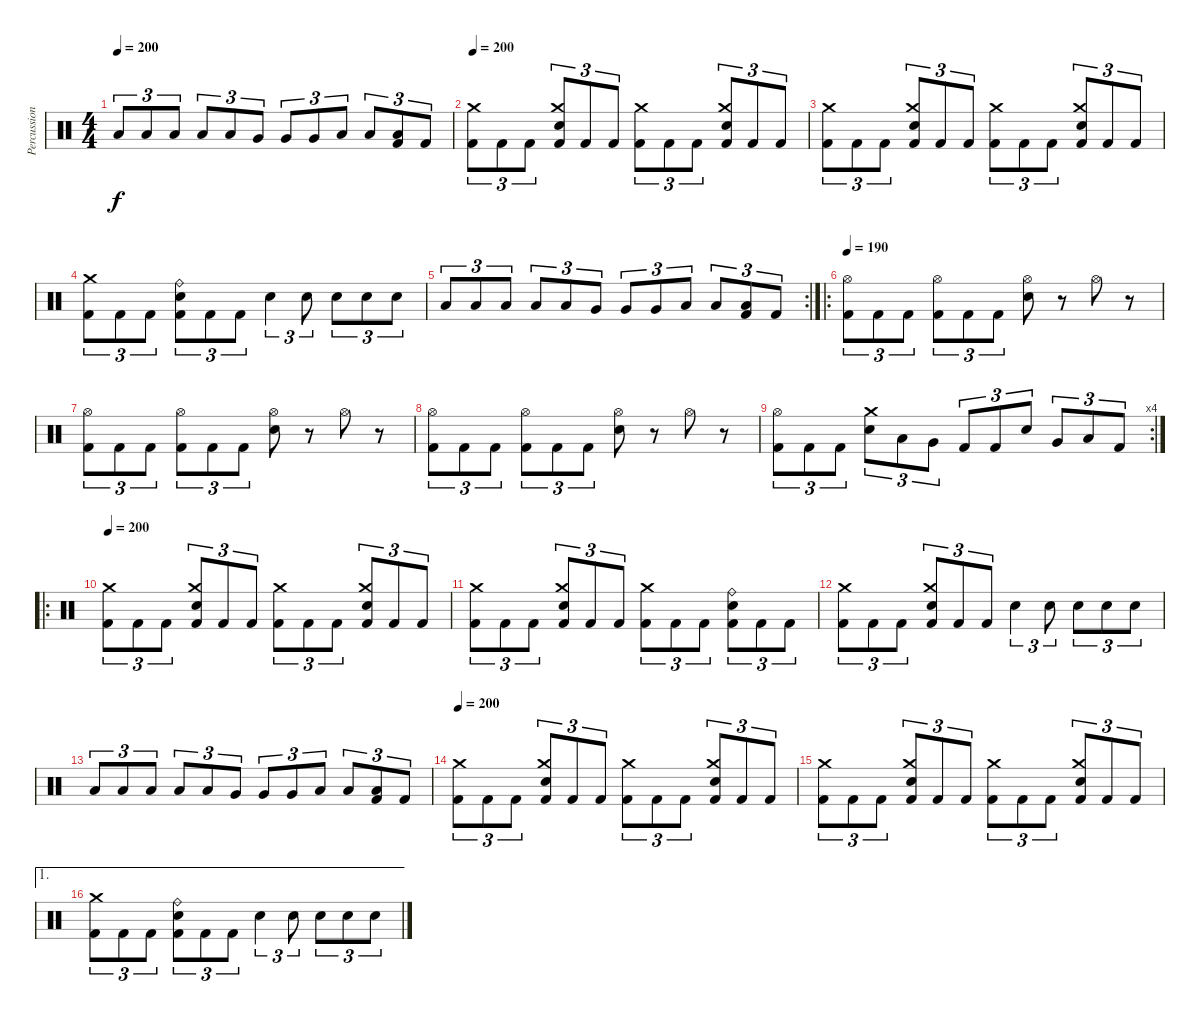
\track ("Percussion" "Percussion") {instrument percussion}
\staff {score}
\articulation defaults
\ts (4 4)
\tempo 200
\clef neutral
\ks c "Low Tom (hit)".8{tu (3 2) dy f} "Low Tom (hit)".8{tu (3 2)} "Low Tom (hit)".8{tu (3 2)} "Low Tom (hit)".8{tu (3 2)} "Low Tom (hit)".8{tu (3 2)} "Very Low Tom (hit)".8{tu (3 2)} "Very Low Tom (hit)".8{tu (3 2)} "Very Low Tom (hit)".8{tu (3 2)} "Low Floor Tom (hit)".8{tu (3 2)} "Low Floor Tom (hit)".8{tu (3 2)}
("Low Floor Tom (hit)" "Kick (hit) 2").8{tu (3 2)} "Kick (hit) 2".8{tu (3 2)} |
\tempo 200
("Crash medium (hit)" "Kick (hit) 2").8{tu (3 2)} "Kick (hit) 2".8{tu (3 2)} "Kick (hit) 2".8{tu (3 2)} ("Crash medium (hit)" "Electric Snare (hit)" "Kick (hit) 2").8{tu (3 2)} "Kick (hit) 2".8{tu (3 2)} "Kick (hit) 2".8{tu (3 2)} ("Crash medium (hit)" "Kick (hit) 2").8{tu (3 2)} "Kick (hit) 2".8{tu (3 2)} "Kick (hit) 2".8{tu (3 2)} ("Crash medium (hit)" "Electric Snare (hit)" "Kick (hit) 2").8{tu (3 2)} "Kick (hit) 2".8{tu (3 2)} "Kick (hit) 2".8{tu (3 2)} |
("Crash medium (hit)" "Kick (hit) 2").8{tu (3 2)} "Kick (hit) 2".8{tu (3 2)} "Kick (hit) 2".8{tu (3 2)} ("Crash medium (hit)" "Electric Snare (hit)" "Kick (hit) 2").8{tu (3 2)} "Kick (hit) 2".8{tu (3 2)} "Kick (hit) 2".8{tu (3 2)} ("Crash medium (hit)" "Kick (hit) 2").8{tu (3 2)} "Kick (hit) 2".8{tu (3 2)} "Kick (hit) 2".8{tu (3 2)} ("Crash medium (hit)" "Electric Snare (hit)" "Kick (hit) 2").8{tu (3 2)} "Kick (hit) 2".8{tu (3 2)} "Kick (hit) 2".8{tu (3 2)} |
("Crash medium (hit)" "Kick (hit) 2").8{tu (3 2)} "Kick (hit) 2".8{tu (3 2)} "Kick (hit) 2".8{tu (3 2)} ("Ride (bell)" "Electric Snare (hit)" "Kick (hit) 2").8{tu (3 2)} "Kick (hit) 2".8{tu (3 2)} "Kick (hit) 2".8{tu (3 2)} "Electric Snare (hit)".4{tu (3 2)} "Electric Snare (hit)".8{tu (3 2)} "Electric Snare (hit)".8{tu (3 2)} "Electric Snare (hit)".8{tu (3 2)} "Electric Snare (hit)".8{tu (3 2)} |
\rc 2 "Low Tom (hit)".8{tu (3 2)} "Low Tom (hit)".8{tu (3 2)} "Low Tom (hit)".8{tu (3 2)} "Low Tom (hit)".8{tu (3 2)} "Low Tom (hit)".8{tu (3 2)} "Very Low Tom (hit)".8{tu (3 2)} "Very Low Tom (hit)".8{tu (3 2)} "Very Low Tom (hit)".8{tu (3 2)} "Low Floor Tom (hit)".8{tu (3 2)} "Low Floor Tom (hit)".8{tu (3 2)}
("Low Floor Tom (hit)" "Kick (hit) 2").8{tu (3 2)} "Kick (hit) 2".8{tu (3 2)} |
\ro
\tempo 190
("Hi-Hat (open)" "Kick (hit) 2").8{tu (3 2)} "Kick (hit) 2".8{tu (3 2)} "Kick (hit) 2".8{tu (3 2)} ("Hi-Hat (open)" "Kick (hit) 2").8{tu (3 2)} "Kick (hit) 2".8{tu (3 2)} "Kick (hit) 2".8{tu (3 2)} ("Hi-Hat (open)" "Electric Snare (hit)").8 r.8 "Hi-Hat (open)".8 r.8 |
("Hi-Hat (open)" "Kick (hit) 2").8{tu (3 2)} "Kick (hit) 2".8{tu (3 2)} "Kick (hit) 2".8{tu (3 2)} ("Hi-Hat (open)" "Kick (hit) 2").8{tu (3 2)} "Kick (hit) 2".8{tu (3 2)} "Kick (hit) 2".8{tu (3 2)} ("Hi-Hat (open)" "Electric Snare (hit)").8 r.8 "Hi-Hat (open)".8 r.8 |
("Hi-Hat (open)" "Kick (hit) 2").8{tu (3 2)} "Kick (hit) 2".8{tu (3 2)} "Kick (hit) 2".8{tu (3 2)} ("Hi-Hat (open)" "Kick (hit) 2").8{tu (3 2)} "Kick (hit) 2".8{tu (3 2)} "Kick (hit) 2".8{tu (3 2)} ("Hi-Hat (open)" "Electric Snare (hit)").8 r.8 "Hi-Hat (open)".8 r.8 |
\rc 4
("Hi-Hat (open)" "Kick (hit) 2").8{tu (3 2)} "Kick (hit) 2".8{tu (3 2)} "Kick (hit) 2".8{tu (3 2)} ("Crash medium (hit)" "Electric Snare (hit)").8{tu (3 2)} "Low Tom (hit)".8{tu (3 2)} "Very Low Tom (hit)".8{tu (3 2)} "Kick (hit) 2".8{tu (3 2)} "Kick (hit) 2".8{tu (3 2)} "Electric Snare (hit)".8{tu (3 2)} "Very Low Tom (hit)".8{tu (3 2)} "Low Floor Tom (hit)".8{tu (3 2)} "Kick (hit) 2".8{tu (3 2)} |
\ro
\tempo 200
("Crash medium (hit)" "Kick (hit) 2").8{tu (3 2)} "Kick (hit) 2".8{tu (3 2)} "Kick (hit) 2".8{tu (3 2)} ("Crash medium (hit)" "Electric Snare (hit)" "Kick (hit) 2").8{tu (3 2)} "Kick (hit) 2".8{tu (3 2)} "Kick (hit) 2".8{tu (3 2)} ("Crash medium (hit)" "Kick (hit) 2").8{tu (3 2)} "Kick (hit) 2".8{tu (3 2)} "Kick (hit) 2".8{tu (3 2)} ("Crash medium (hit)" "Electric Snare (hit)" "Kick (hit) 2").8{tu (3 2)} "Kick (hit) 2".8{tu (3 2)} "Kick (hit) 2".8{tu (3 2)} |
("Crash medium (hit)" "Kick (hit) 2").8{tu (3 2)} "Kick (hit) 2".8{tu (3 2)} "Kick (hit) 2".8{tu (3 2)} ("Crash medium (hit)" "Electric Snare (hit)" "Kick (hit) 2").8{tu (3 2)} "Kick (hit) 2".8{tu (3 2)} "Kick (hit) 2".8{tu (3 2)} ("Crash medium (hit)" "Kick (hit) 2").8{tu (3 2)} "Kick (hit) 2".8{tu (3 2)} "Kick (hit) 2".8{tu (3 2)} ("Ride (bell)" "Electric Snare (hit)" "Kick (hit) 2").8{tu (3 2)} "Kick (hit) 2".8{tu (3 2)} "Kick (hit) 2".8{tu (3 2)} |
("Crash medium (hit)" "Kick (hit) 2").8{tu (3 2)} "Kick (hit) 2".8{tu (3 2)} "Kick (hit) 2".8{tu (3 2)} ("Crash medium (hit)" "Electric Snare (hit)" "Kick (hit) 2").8{tu (3 2)} "Kick (hit) 2".8{tu (3 2)} "Kick (hit) 2".8{tu (3 2)} "Electric Snare (hit)".4{tu (3 2)} "Electric Snare (hit)".8{tu (3 2)} "Electric Snare (hit)".8{tu (3 2)} "Electric Snare (hit)".8{tu (3 2)} "Electric Snare (hit)".8{tu (3 2)} |
"Low Tom (hit)".8{tu (3 2)} "Low Tom (hit)".8{tu (3 2)} "Low Tom (hit)".8{tu (3 2)} "Low Tom (hit)".8{tu (3 2)} "Low Tom (hit)".8{tu (3 2)} "Very Low Tom (hit)".8{tu (3 2)} "Very Low Tom (hit)".8{tu (3 2)} "Very Low Tom (hit)".8{tu (3 2)} "Low Floor Tom (hit)".8{tu (3 2)} "Low Floor Tom (hit)".8{tu (3 2)} ("Low Floor Tom (hit)" "Kick (hit) 2").8{tu (3 2)} "Kick (hit) 2".8{tu (3 2)} |
\tempo 200
("Crash medium (hit)" "Kick (hit) 2").8{tu (3 2)} "Kick (hit) 2".8{tu (3 2)} "Kick (hit) 2".8{tu (3 2)} ("Crash medium (hit)" "Electric Snare (hit)" "Kick (hit) 2").8{tu (3 2)} "Kick (hit) 2".8{tu (3 2)} "Kick (hit) 2".8{tu (3 2)} ("Crash medium (hit)" "Kick (hit) 2").8{tu (3 2)} "Kick (hit) 2".8{tu (3 2)} "Kick (hit) 2".8{tu (3 2)} ("Crash medium (hit)" "Electric Snare (hit)" "Kick (hit) 2").8{tu (3 2)} "Kick (hit) 2".8{tu (3 2)} "Kick (hit) 2".8{tu (3 2)} |
("Crash medium (hit)" "Kick (hit) 2").8{tu (3 2)} "Kick (hit) 2".8{tu (3 2)} "Kick (hit) 2".8{tu (3 2)} ("Crash medium (hit)" "Electric Snare (hit)" "Kick (hit) 2").8{tu (3 2)} "Kick (hit) 2".8{tu (3 2)} "Kick (hit) 2".8{tu (3 2)} ("Crash medium (hit)" "Kick (hit) 2").8{tu (3 2)} "Kick (hit) 2".8{tu (3 2)} "Kick (hit) 2".8{tu (3 2)} ("Crash medium (hit)" "Electric Snare (hit)" "Kick (hit) 2").8{tu (3 2)} "Kick (hit) 2".8{tu (3 2)} "Kick (hit) 2".8{tu (3 2)} |
\ae 1
("Crash medium (hit)" "Kick (hit) 2").8{tu (3 2)} "Kick (hit) 2".8{tu (3 2)} "Kick (hit) 2".8{tu (3 2)} ("Ride (bell)" "Electric Snare (hit)" "Kick (hit) 2").8{tu (3 2)} "Kick (hit) 2".8{tu (3 2)} "Kick (hit) 2".8{tu (3 2)} "Electric Snare (hit)".4{tu (3 2)} "Electric Snare (hit)".8{tu (3 2)} "Electric Snare (hit)".8{tu (3 2)} "Electric Snare (hit)".8{tu (3 2)} "Electric Snare (hit)".8{tu (3 2)}
